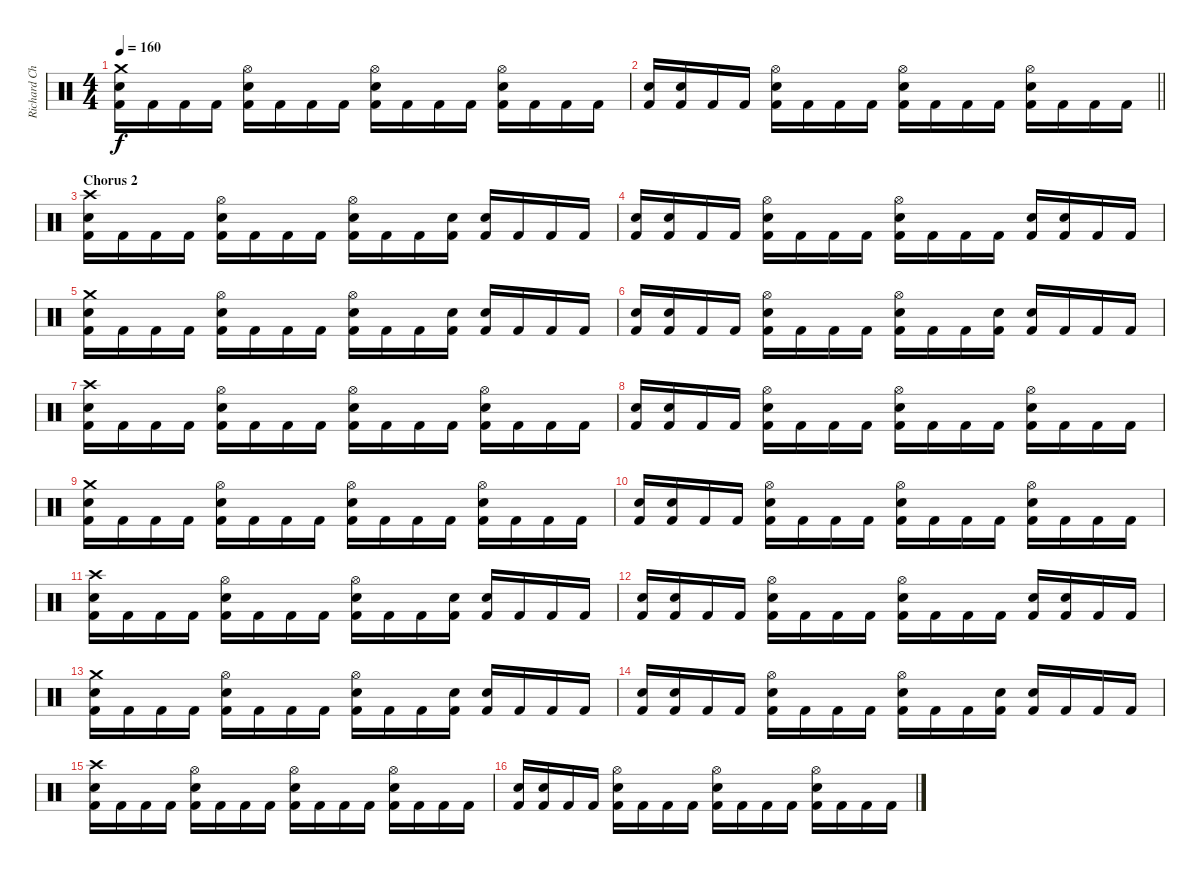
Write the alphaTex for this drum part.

\track ("Richard Christy" "Richard Ch") {instrument percussion}
\staff {score}
\articulation defaults
\ts (4 4)
\tempo 160
\clef neutral
\ks c
("Crash medium (hit)" "Snare (hit) 2" "Kick (hit) 2").16{dy f} "Kick (hit) 2".16 "Kick (hit) 2".16 "Kick (hit) 2".16 ("Hi-Hat (open)" "Snare (hit) 2" "Kick (hit) 2").16 "Kick (hit) 2".16 "Kick (hit) 2".16 "Kick (hit) 2".16 ("Hi-Hat (open)" "Snare (hit) 2" "Kick (hit) 2").16 "Kick (hit) 2".16 "Kick (hit) 2".16 "Kick (hit) 2".16 ("Hi-Hat (open)" "Snare (hit) 2" "Kick (hit) 2").16 "Kick (hit) 2".16 "Kick (hit) 2".16 "Kick (hit) 2".16 |
\barLineRight lightlight
("Snare (hit) 2" "Kick (hit) 2").16 ("Snare (hit) 2" "Kick (hit) 2").16 "Kick (hit) 2".16 "Kick (hit) 2".16 ("Hi-Hat (open)" "Snare (hit) 2" "Kick (hit) 2").16 "Kick (hit) 2".16 "Kick (hit) 2".16 "Kick (hit) 2".16 ("Hi-Hat (open)" "Snare (hit) 2" "Kick (hit) 2").16 "Kick (hit) 2".16 "Kick (hit) 2".16 "Kick (hit) 2".16 ("Hi-Hat (open)" "Snare (hit) 2" "Kick (hit) 2").16 "Kick (hit) 2".16 "Kick (hit) 2".16 "Kick (hit) 2".16 |
\section ("" "Chorus 2")
("Crash high (hit)" "Snare (hit) 2" "Kick (hit) 2").16 "Kick (hit) 2".16 "Kick (hit) 2".16 "Kick (hit) 2".16 ("Hi-Hat (open)" "Snare (hit) 2" "Kick (hit) 2").16 "Kick (hit) 2".16 "Kick (hit) 2".16 "Kick (hit) 2".16 ("Hi-Hat (open)" "Snare (hit) 2" "Kick (hit) 2").16 "Kick (hit) 2".16 "Kick (hit) 2".16 ("Snare (hit) 2" "Kick (hit) 2").16 ("Snare (hit) 2" "Kick (hit) 2").16 "Kick (hit) 2".16 "Kick (hit) 2".16 "Kick (hit) 2".16 |
("Snare (hit) 2" "Kick (hit) 2").16 ("Snare (hit) 2" "Kick (hit) 2").16 "Kick (hit) 2".16 "Kick (hit) 2".16 ("Hi-Hat (open)" "Snare (hit) 2" "Kick (hit) 2").16 "Kick (hit) 2".16 "Kick (hit) 2".16 "Kick (hit) 2".16 ("Hi-Hat (open)" "Snare (hit) 2" "Kick (hit) 2").16 "Kick (hit) 2".16 "Kick (hit) 2".16 "Kick (hit) 2".16 ("Snare (hit) 2" "Kick (hit) 2").16 ("Snare (hit) 2" "Kick (hit) 2").16 "Kick (hit) 2".16 "Kick (hit) 2".16 |
("Crash medium (hit)" "Snare (hit) 2" "Kick (hit) 2").16 "Kick (hit) 2".16 "Kick (hit) 2".16 "Kick (hit) 2".16 ("Hi-Hat (open)" "Snare (hit) 2" "Kick (hit) 2").16 "Kick (hit) 2".16 "Kick (hit) 2".16 "Kick (hit) 2".16 ("Hi-Hat (open)" "Snare (hit) 2" "Kick (hit) 2").16 "Kick (hit) 2".16 "Kick (hit) 2".16 ("Snare (hit) 2" "Kick (hit) 2").16 ("Snare (hit) 2" "Kick (hit) 2").16 "Kick (hit) 2".16 "Kick (hit) 2".16 "Kick (hit) 2".16 |
("Snare (hit) 2" "Kick (hit) 2").16 ("Snare (hit) 2" "Kick (hit) 2").16 "Kick (hit) 2".16 "Kick (hit) 2".16 ("Hi-Hat (open)" "Snare (hit) 2" "Kick (hit) 2").16 "Kick (hit) 2".16 "Kick (hit) 2".16 "Kick (hit) 2".16 ("Hi-Hat (open)" "Snare (hit) 2" "Kick (hit) 2").16 "Kick (hit) 2".16 "Kick (hit) 2".16 ("Snare (hit) 2" "Kick (hit) 2").16 ("Snare (hit) 2" "Kick (hit) 2").16 "Kick (hit) 2".16 "Kick (hit) 2".16 "Kick (hit) 2".16 |
("Crash high (hit)" "Snare (hit) 2" "Kick (hit) 2").16 "Kick (hit) 2".16 "Kick (hit) 2".16 "Kick (hit) 2".16 ("Hi-Hat (open)" "Snare (hit) 2" "Kick (hit) 2").16 "Kick (hit) 2".16 "Kick (hit) 2".16 "Kick (hit) 2".16 ("Hi-Hat (open)" "Snare (hit) 2" "Kick (hit) 2").16 "Kick (hit) 2".16 "Kick (hit) 2".16 "Kick (hit) 2".16 ("Hi-Hat (open)" "Snare (hit) 2" "Kick (hit) 2").16 "Kick (hit) 2".16 "Kick (hit) 2".16 "Kick (hit) 2".16 |
("Snare (hit) 2" "Kick (hit) 2").16 ("Snare (hit) 2" "Kick (hit) 2").16 "Kick (hit) 2".16 "Kick (hit) 2".16 ("Hi-Hat (open)" "Snare (hit) 2" "Kick (hit) 2").16 "Kick (hit) 2".16 "Kick (hit) 2".16 "Kick (hit) 2".16 ("Hi-Hat (open)" "Snare (hit) 2" "Kick (hit) 2").16 "Kick (hit) 2".16 "Kick (hit) 2".16 "Kick (hit) 2".16 ("Hi-Hat (open)" "Snare (hit) 2" "Kick (hit) 2").16 "Kick (hit) 2".16 "Kick (hit) 2".16 "Kick (hit) 2".16 |
("Crash medium (hit)" "Snare (hit) 2" "Kick (hit) 2").16 "Kick (hit) 2".16 "Kick (hit) 2".16 "Kick (hit) 2".16 ("Hi-Hat (open)" "Snare (hit) 2" "Kick (hit) 2").16 "Kick (hit) 2".16 "Kick (hit) 2".16 "Kick (hit) 2".16 ("Hi-Hat (open)" "Snare (hit) 2" "Kick (hit) 2").16 "Kick (hit) 2".16 "Kick (hit) 2".16 "Kick (hit) 2".16 ("Hi-Hat (open)" "Snare (hit) 2" "Kick (hit) 2").16 "Kick (hit) 2".16 "Kick (hit) 2".16 "Kick (hit) 2".16 |
("Snare (hit) 2" "Kick (hit) 2").16 ("Snare (hit) 2" "Kick (hit) 2").16 "Kick (hit) 2".16 "Kick (hit) 2".16 ("Hi-Hat (open)" "Snare (hit) 2" "Kick (hit) 2").16 "Kick (hit) 2".16 "Kick (hit) 2".16 "Kick (hit) 2".16 ("Hi-Hat (open)" "Snare (hit) 2" "Kick (hit) 2").16 "Kick (hit) 2".16 "Kick (hit) 2".16 "Kick (hit) 2".16 ("Hi-Hat (open)" "Snare (hit) 2" "Kick (hit) 2").16 "Kick (hit) 2".16 "Kick (hit) 2".16 "Kick (hit) 2".16 |
("Crash high (hit)" "Snare (hit) 2" "Kick (hit) 2").16 "Kick (hit) 2".16 "Kick (hit) 2".16 "Kick (hit) 2".16 ("Hi-Hat (open)" "Snare (hit) 2" "Kick (hit) 2").16 "Kick (hit) 2".16 "Kick (hit) 2".16 "Kick (hit) 2".16 ("Hi-Hat (open)" "Snare (hit) 2" "Kick (hit) 2").16 "Kick (hit) 2".16 "Kick (hit) 2".16 ("Snare (hit) 2" "Kick (hit) 2").16 ("Snare (hit) 2" "Kick (hit) 2").16 "Kick (hit) 2".16 "Kick (hit) 2".16 "Kick (hit) 2".16 |
("Snare (hit) 2" "Kick (hit) 2").16 ("Snare (hit) 2" "Kick (hit) 2").16 "Kick (hit) 2".16 "Kick (hit) 2".16 ("Hi-Hat (open)" "Snare (hit) 2" "Kick (hit) 2").16 "Kick (hit) 2".16 "Kick (hit) 2".16 "Kick (hit) 2".16 ("Hi-Hat (open)" "Snare (hit) 2" "Kick (hit) 2").16 "Kick (hit) 2".16 "Kick (hit) 2".16 "Kick (hit) 2".16 ("Snare (hit) 2" "Kick (hit) 2").16 ("Snare (hit) 2" "Kick (hit) 2").16 "Kick (hit) 2".16 "Kick (hit) 2".16 |
("Crash medium (hit)" "Snare (hit) 2" "Kick (hit) 2").16 "Kick (hit) 2".16 "Kick (hit) 2".16 "Kick (hit) 2".16 ("Hi-Hat (open)" "Snare (hit) 2" "Kick (hit) 2").16 "Kick (hit) 2".16 "Kick (hit) 2".16 "Kick (hit) 2".16 ("Hi-Hat (open)" "Snare (hit) 2" "Kick (hit) 2").16 "Kick (hit) 2".16 "Kick (hit) 2".16 ("Snare (hit) 2" "Kick (hit) 2").16 ("Snare (hit) 2" "Kick (hit) 2").16 "Kick (hit) 2".16 "Kick (hit) 2".16 "Kick (hit) 2".16 |
("Snare (hit) 2" "Kick (hit) 2").16 ("Snare (hit) 2" "Kick (hit) 2").16 "Kick (hit) 2".16 "Kick (hit) 2".16 ("Hi-Hat (open)" "Snare (hit) 2" "Kick (hit) 2").16 "Kick (hit) 2".16 "Kick (hit) 2".16 "Kick (hit) 2".16 ("Hi-Hat (open)" "Snare (hit) 2" "Kick (hit) 2").16 "Kick (hit) 2".16 "Kick (hit) 2".16 ("Snare (hit) 2" "Kick (hit) 2").16 ("Snare (hit) 2" "Kick (hit) 2").16 "Kick (hit) 2".16 "Kick (hit) 2".16 "Kick (hit) 2".16 |
("Crash high (hit)" "Snare (hit) 2" "Kick (hit) 2").16 "Kick (hit) 2".16 "Kick (hit) 2".16 "Kick (hit) 2".16 ("Hi-Hat (open)" "Snare (hit) 2" "Kick (hit) 2").16 "Kick (hit) 2".16 "Kick (hit) 2".16 "Kick (hit) 2".16 ("Hi-Hat (open)" "Snare (hit) 2" "Kick (hit) 2").16 "Kick (hit) 2".16 "Kick (hit) 2".16 "Kick (hit) 2".16 ("Hi-Hat (open)" "Snare (hit) 2" "Kick (hit) 2").16 "Kick (hit) 2".16 "Kick (hit) 2".16 "Kick (hit) 2".16 |
("Snare (hit) 2" "Kick (hit) 2").16 ("Snare (hit) 2" "Kick (hit) 2").16 "Kick (hit) 2".16 "Kick (hit) 2".16 ("Hi-Hat (open)" "Snare (hit) 2" "Kick (hit) 2").16 "Kick (hit) 2".16 "Kick (hit) 2".16 "Kick (hit) 2".16 ("Hi-Hat (open)" "Snare (hit) 2" "Kick (hit) 2").16 "Kick (hit) 2".16 "Kick (hit) 2".16 "Kick (hit) 2".16 ("Hi-Hat (open)" "Snare (hit) 2" "Kick (hit) 2").16 "Kick (hit) 2".16 "Kick (hit) 2".16 "Kick (hit) 2".16
